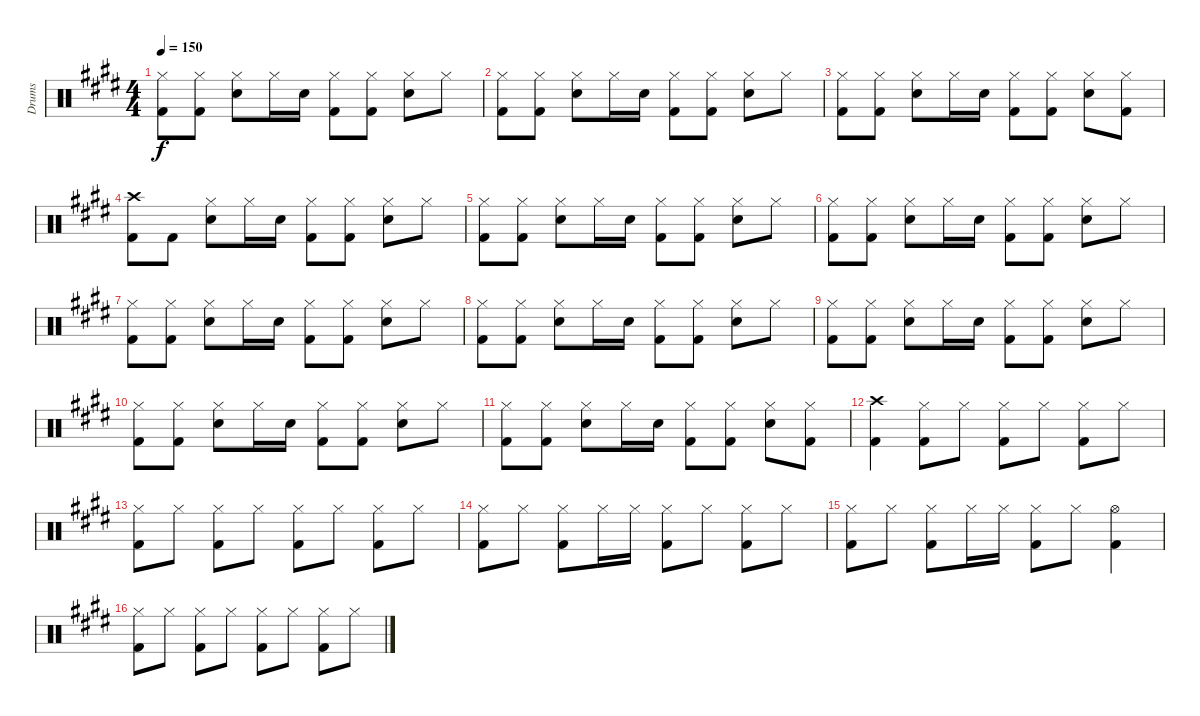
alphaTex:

\track ("Drums" "Drums") {instrument percussion}
\staff {score}
\articulation defaults
\ts (4 4)
\tempo 150
\clef neutral
\ks e
("Hi-Hat (closed)" "Kick (hit) 2").8{dy f} ("Hi-Hat (closed)" "Kick (hit) 2").8 ("Hi-Hat (closed)" "Snare (hit) 2").8 "Hi-Hat (closed)".16 "Snare (hit) 2".16 ("Hi-Hat (closed)" "Kick (hit) 2").8 ("Hi-Hat (closed)" "Kick (hit) 2").8 ("Hi-Hat (closed)" "Snare (hit) 2").8 "Hi-Hat (closed)".8 |
("Hi-Hat (closed)" "Kick (hit) 2").8 ("Hi-Hat (closed)" "Kick (hit) 2").8 ("Hi-Hat (closed)" "Snare (hit) 2").8 "Hi-Hat (closed)".16 "Snare (hit) 2".16 ("Hi-Hat (closed)" "Kick (hit) 2").8 ("Hi-Hat (closed)" "Kick (hit) 2").8 ("Hi-Hat (closed)" "Snare (hit) 2").8 "Hi-Hat (closed)".8 |
("Hi-Hat (closed)" "Kick (hit) 2").8 ("Hi-Hat (closed)" "Kick (hit) 2").8 ("Hi-Hat (closed)" "Snare (hit) 2").8 "Hi-Hat (closed)".16 "Snare (hit) 2".16 ("Hi-Hat (closed)" "Kick (hit) 2").8 ("Hi-Hat (closed)" "Kick (hit) 2").8 ("Hi-Hat (closed)" "Snare (hit) 2").8 ("Hi-Hat (closed)" "Kick (hit) 2").8 |
("Crash high (hit)" "Kick (hit) 2").8 "Kick (hit) 2".8 ("Hi-Hat (closed)" "Snare (hit) 2").8 "Hi-Hat (closed)".16 "Snare (hit) 2".16 ("Hi-Hat (closed)" "Kick (hit) 2").8 ("Hi-Hat (closed)" "Kick (hit) 2").8 ("Hi-Hat (closed)" "Snare (hit) 2").8 "Hi-Hat (closed)".8 |
("Hi-Hat (closed)" "Kick (hit) 2").8 ("Hi-Hat (closed)" "Kick (hit) 2").8 ("Hi-Hat (closed)" "Snare (hit) 2").8 "Hi-Hat (closed)".16 "Snare (hit) 2".16 ("Hi-Hat (closed)" "Kick (hit) 2").8 ("Hi-Hat (closed)" "Kick (hit) 2").8 ("Hi-Hat (closed)" "Snare (hit) 2").8 "Hi-Hat (closed)".8 |
("Hi-Hat (closed)" "Kick (hit) 2").8 ("Hi-Hat (closed)" "Kick (hit) 2").8 ("Hi-Hat (closed)" "Snare (hit) 2").8 "Hi-Hat (closed)".16 "Snare (hit) 2".16 ("Hi-Hat (closed)" "Kick (hit) 2").8 ("Hi-Hat (closed)" "Kick (hit) 2").8 ("Hi-Hat (closed)" "Snare (hit) 2").8 "Hi-Hat (closed)".8 |
("Hi-Hat (closed)" "Kick (hit) 2").8 ("Hi-Hat (closed)" "Kick (hit) 2").8 ("Hi-Hat (closed)" "Snare (hit) 2").8 "Hi-Hat (closed)".16 "Snare (hit) 2".16 ("Hi-Hat (closed)" "Kick (hit) 2").8 ("Hi-Hat (closed)" "Kick (hit) 2").8 ("Hi-Hat (closed)" "Snare (hit) 2").8 "Hi-Hat (closed)".8 |
("Hi-Hat (closed)" "Kick (hit) 2").8 ("Hi-Hat (closed)" "Kick (hit) 2").8 ("Hi-Hat (closed)" "Snare (hit) 2").8 "Hi-Hat (closed)".16 "Snare (hit) 2".16 ("Hi-Hat (closed)" "Kick (hit) 2").8 ("Hi-Hat (closed)" "Kick (hit) 2").8 ("Hi-Hat (closed)" "Snare (hit) 2").8 "Hi-Hat (closed)".8 |
("Hi-Hat (closed)" "Kick (hit) 2").8 ("Hi-Hat (closed)" "Kick (hit) 2").8 ("Hi-Hat (closed)" "Snare (hit) 2").8 "Hi-Hat (closed)".16 "Snare (hit) 2".16 ("Hi-Hat (closed)" "Kick (hit) 2").8 ("Hi-Hat (closed)" "Kick (hit) 2").8 ("Hi-Hat (closed)" "Snare (hit) 2").8 "Hi-Hat (closed)".8 |
("Hi-Hat (closed)" "Kick (hit) 2").8 ("Hi-Hat (closed)" "Kick (hit) 2").8 ("Hi-Hat (closed)" "Snare (hit) 2").8 "Hi-Hat (closed)".16 "Snare (hit) 2".16 ("Hi-Hat (closed)" "Kick (hit) 2").8 ("Hi-Hat (closed)" "Kick (hit) 2").8 ("Hi-Hat (closed)" "Snare (hit) 2").8 "Hi-Hat (closed)".8 |
("Hi-Hat (closed)" "Kick (hit) 2").8 ("Hi-Hat (closed)" "Kick (hit) 2").8 ("Hi-Hat (closed)" "Snare (hit) 2").8 "Hi-Hat (closed)".16 "Snare (hit) 2".16 ("Hi-Hat (closed)" "Kick (hit) 2").8 ("Hi-Hat (closed)" "Kick (hit) 2").8 ("Hi-Hat (closed)" "Snare (hit) 2").8 ("Hi-Hat (closed)" "Kick (hit) 2").8 |
("Crash high (hit)" "Kick (hit) 2").4 ("Hi-Hat (closed)" "Kick (hit) 2").8 "Hi-Hat (closed)".8 ("Hi-Hat (closed)" "Kick (hit) 2").8 "Hi-Hat (closed)".8 ("Hi-Hat (closed)" "Kick (hit) 2").8 "Hi-Hat (closed)".8 |
("Hi-Hat (closed)" "Kick (hit) 2").8 "Hi-Hat (closed)".8 ("Hi-Hat (closed)" "Kick (hit) 2").8 "Hi-Hat (closed)".8 ("Hi-Hat (closed)" "Kick (hit) 2").8 "Hi-Hat (closed)".8 ("Hi-Hat (closed)" "Kick (hit) 2").8 "Hi-Hat (closed)".8 |
("Hi-Hat (closed)" "Kick (hit) 2").8 "Hi-Hat (closed)".8 ("Hi-Hat (closed)" "Kick (hit) 2").8 "Hi-Hat (closed)".16 "Hi-Hat (closed)".16 ("Hi-Hat (closed)" "Kick (hit) 2").8 "Hi-Hat (closed)".8 ("Hi-Hat (closed)" "Kick (hit) 2").8 "Hi-Hat (closed)".8 |
("Hi-Hat (closed)" "Kick (hit) 2").8 "Hi-Hat (closed)".8 ("Hi-Hat (closed)" "Kick (hit) 2").8 "Hi-Hat (closed)".16 "Hi-Hat (closed)".16 ("Hi-Hat (closed)" "Kick (hit) 2").8 "Hi-Hat (closed)".8 ("Hi-Hat (open)" "Kick (hit) 2").4 |
("Hi-Hat (closed)" "Kick (hit) 2").8 "Hi-Hat (closed)".8 ("Hi-Hat (closed)" "Kick (hit) 2").8 "Hi-Hat (closed)".8 ("Hi-Hat (closed)" "Kick (hit) 2").8 "Hi-Hat (closed)".8 ("Hi-Hat (closed)" "Kick (hit) 2").8 "Hi-Hat (closed)".8
